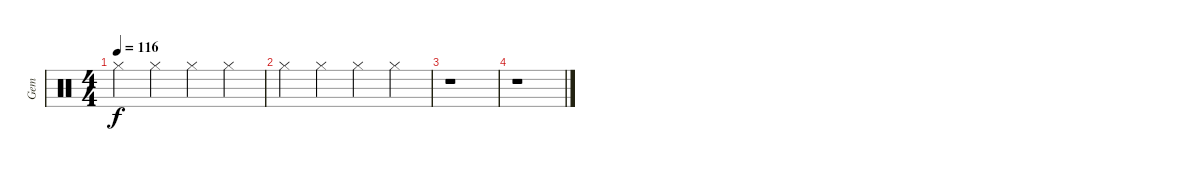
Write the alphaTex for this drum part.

\track ("Gem" "Gem") {instrument percussion}
\staff {score}
\articulation defaults
\ts (4 4)
\tempo 116
\clef neutral
\ks c "Hi-Hat (closed)".4{dy f} "Hi-Hat (closed)".4 "Hi-Hat (closed)".4 "Hi-Hat (closed)".4
|
"Hi-Hat (closed)".4 "Hi-Hat (closed)".4 "Hi-Hat (closed)".4 "Hi-Hat (closed)".4 |
r.1 |
r.1
